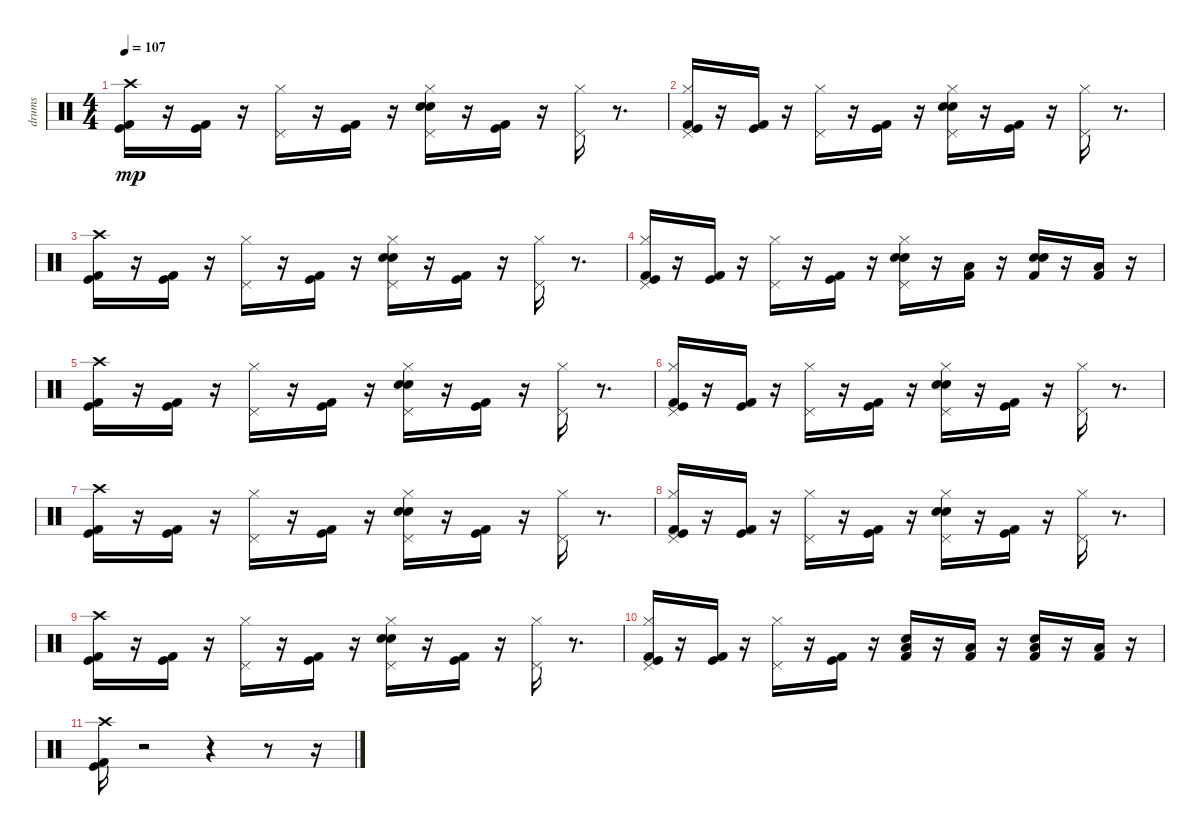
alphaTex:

\track ("drums" "drums") {instrument percussion}
\staff {score}
\articulation defaults
\ts (4 4)
\tempo 107
\clef neutral
\ks c
("Kick (hit) 2" "Kick (hit)" "Crash high (hit)").16{dy mp} r.16 ("Kick (hit) 2" "Kick (hit)").16 r.16 ("Hi-Hat (closed)" "Pedal Hi-Hat (hit)").16 r.16 ("Kick (hit) 2" "Kick (hit)").16 r.16 ("Electric Snare (hit)" "Hi-Hat (closed)" "Snare (hit) 2" "Pedal Hi-Hat (hit)").16 r.16 ("Kick (hit)" "Kick (hit) 2").16 r.16 ("Hi-Hat (closed)" "Pedal Hi-Hat (hit)").16 r.8{d} |
("Hi-Hat (closed)" "Kick (hit) 2" "Kick (hit)" "Pedal Hi-Hat (hit)").16 r.16 ("Kick (hit) 2" "Kick (hit)").16 r.16 ("Hi-Hat (closed)" "Pedal Hi-Hat (hit)").16 r.16 ("Kick (hit) 2" "Kick (hit)").16 r.16 ("Electric Snare (hit)" "Hi-Hat (closed)" "Snare (hit) 2" "Pedal Hi-Hat (hit)").16 r.16 ("Kick (hit)" "Kick (hit) 2").16 r.16 ("Hi-Hat (closed)" "Pedal Hi-Hat (hit)").16 r.8{d} |
("Kick (hit) 2" "Kick (hit)" "Crash high (hit)").16 r.16 ("Kick (hit) 2" "Kick (hit)").16 r.16 ("Hi-Hat (closed)" "Pedal Hi-Hat (hit)").16 r.16 ("Kick (hit) 2" "Kick (hit)").16 r.16 ("Electric Snare (hit)" "Hi-Hat (closed)" "Snare (hit) 2" "Pedal Hi-Hat (hit)").16 r.16 ("Kick (hit)" "Kick (hit) 2").16 r.16 ("Hi-Hat (closed)" "Pedal Hi-Hat (hit)").16 r.8{d} |
("Hi-Hat (closed)" "Kick (hit) 2" "Kick (hit)" "Pedal Hi-Hat (hit)").16 r.16 ("Kick (hit) 2" "Kick (hit)").16 r.16 ("Hi-Hat (closed)" "Pedal Hi-Hat (hit)").16 r.16 ("Kick (hit) 2" "Kick (hit)").16 r.16 ("Electric Snare (hit)" "Hi-Hat (closed)" "Snare (hit) 2" "Pedal Hi-Hat (hit)").16 r.16 ("Low Tom (hit)" "Kick (hit) 2").16 r.16 ("Snare (hit) 2" "Electric Snare (hit)" "Kick (hit) 2").16 r.16 ("Low Tom (hit)" "Kick (hit) 2").16 r.16 |
("Kick (hit) 2" "Kick (hit)" "Crash high (hit)").16 r.16 ("Kick (hit) 2" "Kick (hit)").16 r.16 ("Hi-Hat (closed)" "Pedal Hi-Hat (hit)").16 r.16 ("Kick (hit) 2" "Kick (hit)").16 r.16 ("Electric Snare (hit)" "Hi-Hat (closed)" "Snare (hit) 2" "Pedal Hi-Hat (hit)").16 r.16 ("Kick (hit)" "Kick (hit) 2").16 r.16 ("Hi-Hat (closed)" "Pedal Hi-Hat (hit)").16 r.8{d} |
("Hi-Hat (closed)" "Kick (hit) 2" "Kick (hit)" "Pedal Hi-Hat (hit)").16 r.16 ("Kick (hit) 2" "Kick (hit)").16 r.16 ("Hi-Hat (closed)" "Pedal Hi-Hat (hit)").16 r.16 ("Kick (hit) 2" "Kick (hit)").16 r.16 ("Electric Snare (hit)" "Hi-Hat (closed)" "Snare (hit) 2" "Pedal Hi-Hat (hit)").16 r.16 ("Kick (hit)" "Kick (hit) 2").16 r.16 ("Hi-Hat (closed)" "Pedal Hi-Hat (hit)").16 r.8{d} |
("Kick (hit) 2" "Kick (hit)" "Crash high (hit)").16 r.16 ("Kick (hit) 2" "Kick (hit)").16 r.16 ("Hi-Hat (closed)" "Pedal Hi-Hat (hit)").16 r.16 ("Kick (hit) 2" "Kick (hit)").16 r.16 ("Electric Snare (hit)" "Hi-Hat (closed)" "Snare (hit) 2" "Pedal Hi-Hat (hit)").16 r.16 ("Kick (hit)" "Kick (hit) 2").16 r.16 ("Hi-Hat (closed)" "Pedal Hi-Hat (hit)").16 r.8{d} |
("Hi-Hat (closed)" "Kick (hit) 2" "Kick (hit)" "Pedal Hi-Hat (hit)").16 r.16 ("Kick (hit) 2" "Kick (hit)").16 r.16 ("Hi-Hat (closed)" "Pedal Hi-Hat (hit)").16 r.16 ("Kick (hit) 2" "Kick (hit)").16 r.16 ("Electric Snare (hit)" "Hi-Hat (closed)" "Snare (hit) 2" "Pedal Hi-Hat (hit)").16 r.16 ("Kick (hit)" "Kick (hit) 2").16 r.16 ("Hi-Hat (closed)" "Pedal Hi-Hat (hit)").16 r.8{d} |
("Kick (hit) 2" "Kick (hit)" "Crash high (hit)").16 r.16 ("Kick (hit) 2" "Kick (hit)").16 r.16 ("Hi-Hat (closed)" "Pedal Hi-Hat (hit)").16 r.16 ("Kick (hit) 2" "Kick (hit)").16 r.16 ("Electric Snare (hit)" "Hi-Hat (closed)" "Snare (hit) 2" "Pedal Hi-Hat (hit)").16 r.16 ("Kick (hit)" "Kick (hit) 2").16 r.16 ("Hi-Hat (closed)" "Pedal Hi-Hat (hit)").16 r.8{d} |
("Hi-Hat (closed)" "Kick (hit) 2" "Kick (hit)" "Pedal Hi-Hat (hit)").16 r.16 ("Kick (hit) 2" "Kick (hit)").16 r.16 ("Hi-Hat (closed)" "Pedal Hi-Hat (hit)").16 r.16 ("Kick (hit) 2" "Kick (hit)").16 r.16 ("Low Tom (hit)" "Kick (hit) 2" "Snare (hit) 2").16 r.16 ("Low Tom (hit)" "Kick (hit) 2").16 r.16 ("Low Tom (hit)" "Kick (hit) 2" "Snare (hit) 2").16 r.16 ("Low Tom (hit)" "Kick (hit) 2").16 r.16 |
("Kick (hit) 2" "Kick (hit)" "Crash high (hit)").16 r.2 r.4 r.8 r.16
